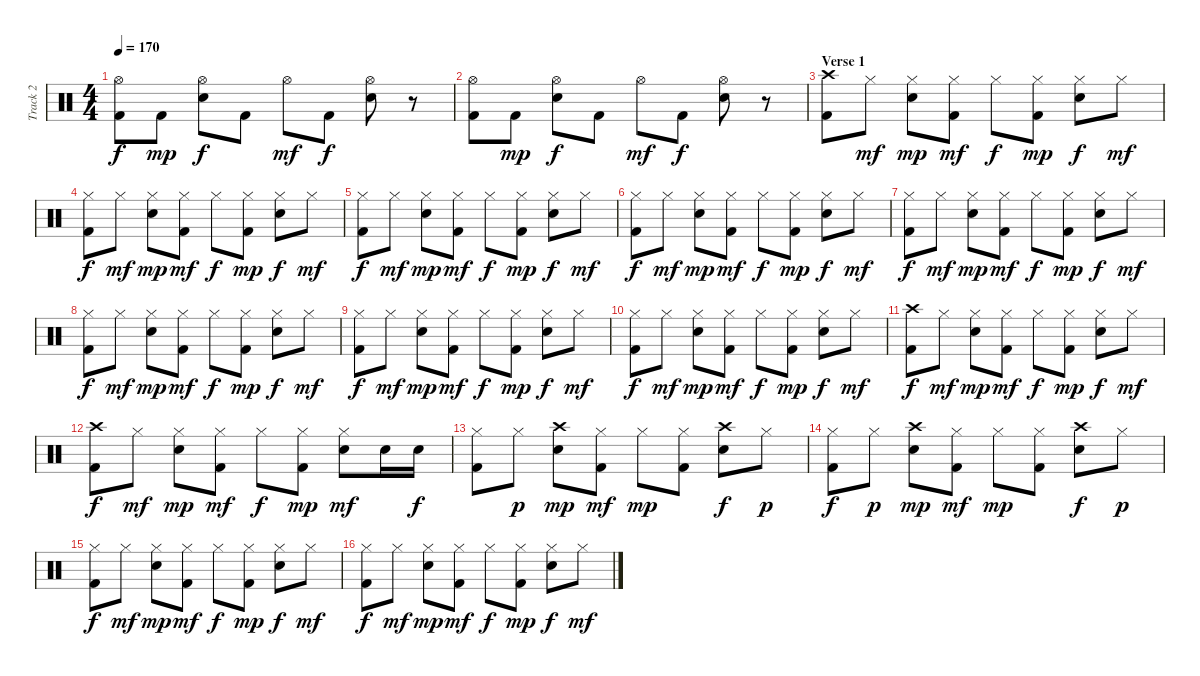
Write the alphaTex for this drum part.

\track ("Track 2" "Track 2") {instrument percussion}
\staff {score}
\articulation defaults
\ts (4 4)
\tempo 170
\clef neutral
\ks c
("Hi-Hat (open)" "Kick (hit) 2").8{dy f} "Kick (hit) 2".8{dy mp} ("Hi-Hat (open)" "Electric Snare (hit)").8{dy f} "Kick (hit) 2".8 "Hi-Hat (open)".8{dy mf} "Kick (hit) 2".8{dy f} ("Hi-Hat (open)" "Electric Snare (hit)").8 r.8 |
("Hi-Hat (open)" "Kick (hit) 2").8 "Kick (hit) 2".8{dy mp} ("Hi-Hat (open)" "Electric Snare (hit)").8{dy f} "Kick (hit) 2".8 "Hi-Hat (open)".8{dy mf} "Kick (hit) 2".8{dy f} ("Hi-Hat (open)" "Electric Snare (hit)").8 r.8 |
\section ("" "Verse 1")
("Crash high (hit)" "Kick (hit) 2").8 "Hi-Hat (closed)".8{dy mf} ("Hi-Hat (closed)" "Electric Snare (hit)").8{dy mp} ("Hi-Hat (closed)" "Kick (hit) 2").8{dy mf} "Hi-Hat (closed)".8{dy f} ("Hi-Hat (closed)" "Kick (hit) 2").8{dy mp} ("Hi-Hat (closed)" "Electric Snare (hit)").8{dy f} "Hi-Hat (closed)".8{dy mf} |
("Hi-Hat (closed)" "Kick (hit) 2").8{dy f} "Hi-Hat (closed)".8{dy mf} ("Hi-Hat (closed)" "Electric Snare (hit)").8{dy mp} ("Hi-Hat (closed)" "Kick (hit) 2").8{dy mf} "Hi-Hat (closed)".8{dy f} ("Hi-Hat (closed)" "Kick (hit) 2").8{dy mp} ("Hi-Hat (closed)" "Electric Snare (hit)").8{dy f} "Hi-Hat (closed)".8{dy mf} |
("Hi-Hat (closed)" "Kick (hit) 2").8{dy f} "Hi-Hat (closed)".8{dy mf} ("Hi-Hat (closed)" "Electric Snare (hit)").8{dy mp} ("Hi-Hat (closed)" "Kick (hit) 2").8{dy mf} "Hi-Hat (closed)".8{dy f} ("Hi-Hat (closed)" "Kick (hit) 2").8{dy mp} ("Hi-Hat (closed)" "Electric Snare (hit)").8{dy f} "Hi-Hat (closed)".8{dy mf} |
("Hi-Hat (closed)" "Kick (hit) 2").8{dy f} "Hi-Hat (closed)".8{dy mf} ("Hi-Hat (closed)" "Electric Snare (hit)").8{dy mp} ("Hi-Hat (closed)" "Kick (hit) 2").8{dy mf} "Hi-Hat (closed)".8{dy f} ("Hi-Hat (closed)" "Kick (hit) 2").8{dy mp} ("Hi-Hat (closed)" "Electric Snare (hit)").8{dy f} "Hi-Hat (closed)".8{dy mf} |
("Hi-Hat (closed)" "Kick (hit) 2").8{dy f} "Hi-Hat (closed)".8{dy mf} ("Hi-Hat (closed)" "Electric Snare (hit)").8{dy mp} ("Hi-Hat (closed)" "Kick (hit) 2").8{dy mf} "Hi-Hat (closed)".8{dy f} ("Hi-Hat (closed)" "Kick (hit) 2").8{dy mp} ("Hi-Hat (closed)" "Electric Snare (hit)").8{dy f} "Hi-Hat (closed)".8{dy mf} |
("Hi-Hat (closed)" "Kick (hit) 2").8{dy f} "Hi-Hat (closed)".8{dy mf} ("Hi-Hat (closed)" "Electric Snare (hit)").8{dy mp} ("Hi-Hat (closed)" "Kick (hit) 2").8{dy mf} "Hi-Hat (closed)".8{dy f} ("Hi-Hat (closed)" "Kick (hit) 2").8{dy mp} ("Hi-Hat (closed)" "Electric Snare (hit)").8{dy f} "Hi-Hat (closed)".8{dy mf} |
("Hi-Hat (closed)" "Kick (hit) 2").8{dy f} "Hi-Hat (closed)".8{dy mf} ("Hi-Hat (closed)" "Electric Snare (hit)").8{dy mp} ("Hi-Hat (closed)" "Kick (hit) 2").8{dy mf} "Hi-Hat (closed)".8{dy f} ("Hi-Hat (closed)" "Kick (hit) 2").8{dy mp} ("Hi-Hat (closed)" "Electric Snare (hit)").8{dy f} "Hi-Hat (closed)".8{dy mf} |
("Hi-Hat (closed)" "Kick (hit) 2").8{dy f} "Hi-Hat (closed)".8{dy mf} ("Hi-Hat (closed)" "Electric Snare (hit)").8{dy mp} ("Hi-Hat (closed)" "Kick (hit) 2").8{dy mf} "Hi-Hat (closed)".8{dy f} ("Hi-Hat (closed)" "Kick (hit) 2").8{dy mp} ("Hi-Hat (closed)" "Electric Snare (hit)").8{dy f} "Hi-Hat (closed)".8{dy mf} |
("Crash high (hit)" "Kick (hit) 2").8{dy f} "Hi-Hat (closed)".8{dy mf} ("Hi-Hat (closed)" "Electric Snare (hit)").8{dy mp} ("Hi-Hat (closed)" "Kick (hit) 2").8{dy mf} "Hi-Hat (closed)".8{dy f} ("Hi-Hat (closed)" "Kick (hit) 2").8{dy mp} ("Hi-Hat (closed)" "Electric Snare (hit)").8{dy f} "Hi-Hat (closed)".8{dy mf} |
("Crash high (hit)" "Kick (hit) 2").8{dy f} "Hi-Hat (closed)".8{dy mf} ("Hi-Hat (closed)" "Electric Snare (hit)").8{dy mp} ("Hi-Hat (closed)" "Kick (hit) 2").8{dy mf} "Hi-Hat (closed)".8{dy f} ("Hi-Hat (closed)" "Kick (hit) 2").8{dy mp} ("Hi-Hat (closed)" "Electric Snare (hit)").8{dy mf} "Electric Snare (hit)".16 "Electric Snare (hit)".16{dy f} |
("Hi-Hat (closed)" "Kick (hit) 2").8 "Hi-Hat (closed)".8{dy p} ("Crash high (hit)" "Electric Snare (hit)").8{dy mp} ("Hi-Hat (closed)" "Kick (hit) 2").8{dy mf} "Hi-Hat (closed)".8{dy mp} ("Hi-Hat (closed)" "Kick (hit) 2").8 ("Crash high (hit)" "Electric Snare (hit)").8{dy f} "Hi-Hat (closed)".8{dy p} |
("Hi-Hat (closed)" "Kick (hit) 2").8{dy f} "Hi-Hat (closed)".8{dy p} ("Crash high (hit)" "Electric Snare (hit)").8{dy mp} ("Hi-Hat (closed)" "Kick (hit) 2").8{dy mf} "Hi-Hat (closed)".8{dy mp} ("Hi-Hat (closed)" "Kick (hit) 2").8 ("Crash high (hit)" "Electric Snare (hit)").8{dy f} "Hi-Hat (closed)".8{dy p} |
("Hi-Hat (closed)" "Kick (hit) 2").8{dy f} "Hi-Hat (closed)".8{dy mf} ("Hi-Hat (closed)" "Electric Snare (hit)").8{dy mp} ("Hi-Hat (closed)" "Kick (hit) 2").8{dy mf} "Hi-Hat (closed)".8{dy f} ("Hi-Hat (closed)" "Kick (hit) 2").8{dy mp} ("Hi-Hat (closed)" "Electric Snare (hit)").8{dy f} "Hi-Hat (closed)".8{dy mf} |
("Hi-Hat (closed)" "Kick (hit) 2").8{dy f} "Hi-Hat (closed)".8{dy mf} ("Hi-Hat (closed)" "Electric Snare (hit)").8{dy mp} ("Hi-Hat (closed)" "Kick (hit) 2").8{dy mf} "Hi-Hat (closed)".8{dy f} ("Hi-Hat (closed)" "Kick (hit) 2").8{dy mp} ("Hi-Hat (closed)" "Electric Snare (hit)").8{dy f} "Hi-Hat (closed)".8{dy mf}
